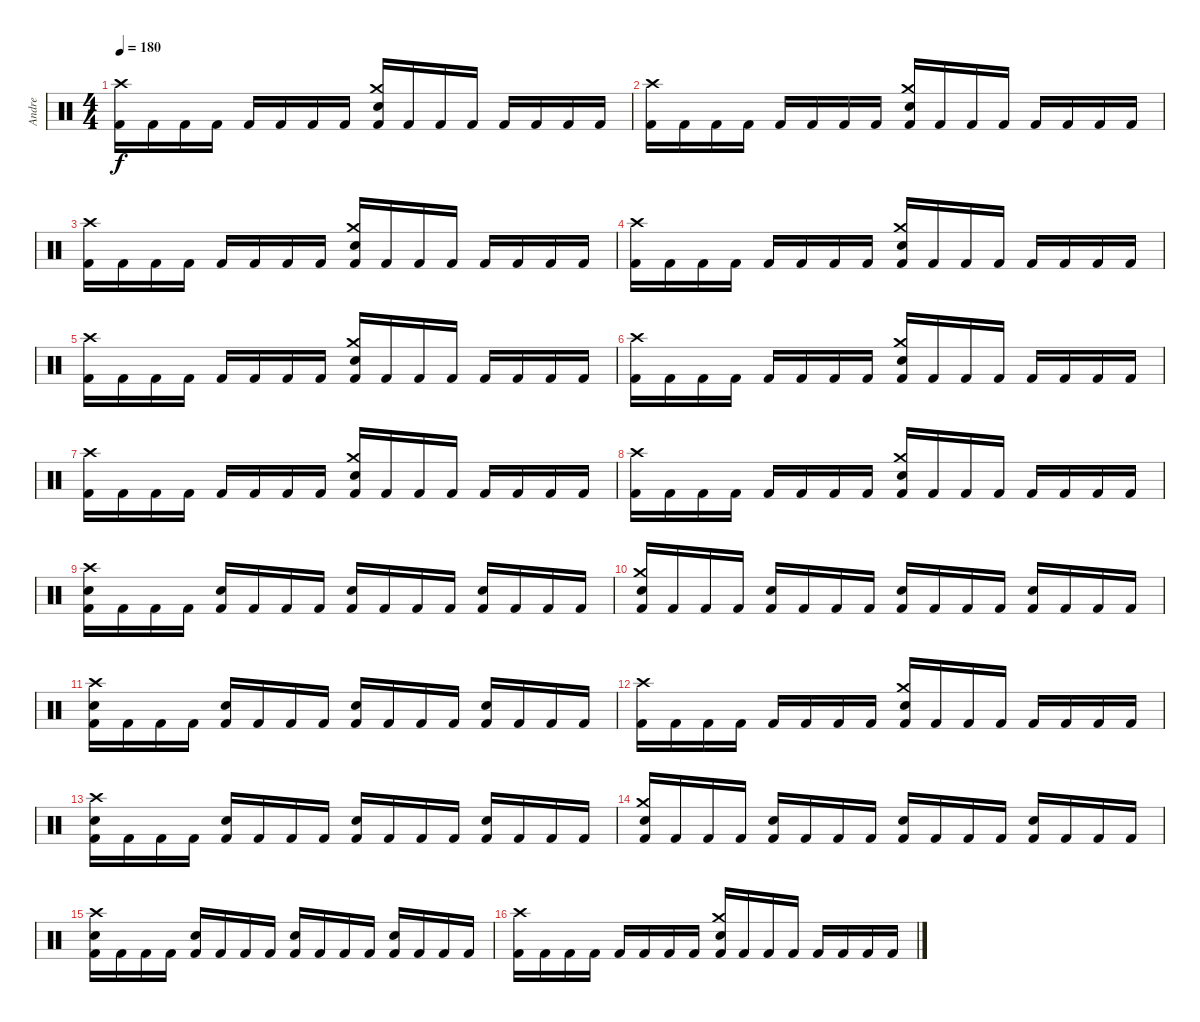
\track ("Andre" "Andre") {instrument percussion}
\staff {score}
\articulation defaults
\ts (4 4)
\tempo 180
\clef neutral
\ks c
("Crash high (hit)" "Kick (hit) 2").16{dy f} "Kick (hit) 2".16 "Kick (hit) 2".16 "Kick (hit) 2".16 "Kick (hit) 2".16 "Kick (hit) 2".16 "Kick (hit) 2".16 "Kick (hit) 2".16 ("Crash medium (hit)" "Snare (hit) 2" "Kick (hit) 2").16 "Kick (hit) 2".16 "Kick (hit) 2".16 "Kick (hit) 2".16 "Kick (hit) 2".16 "Kick (hit) 2".16 "Kick (hit) 2".16 "Kick (hit) 2".16 |
("Crash high (hit)" "Kick (hit) 2").16 "Kick (hit) 2".16 "Kick (hit) 2".16 "Kick (hit) 2".16 "Kick (hit) 2".16 "Kick (hit) 2".16 "Kick (hit) 2".16 "Kick (hit) 2".16 ("Crash medium (hit)" "Snare (hit) 2" "Kick (hit) 2").16 "Kick (hit) 2".16 "Kick (hit) 2".16 "Kick (hit) 2".16 "Kick (hit) 2".16 "Kick (hit) 2".16 "Kick (hit) 2".16 "Kick (hit) 2".16 |
("Crash high (hit)" "Kick (hit) 2").16 "Kick (hit) 2".16 "Kick (hit) 2".16 "Kick (hit) 2".16 "Kick (hit) 2".16 "Kick (hit) 2".16 "Kick (hit) 2".16 "Kick (hit) 2".16 ("Crash medium (hit)" "Snare (hit) 2" "Kick (hit) 2").16 "Kick (hit) 2".16 "Kick (hit) 2".16 "Kick (hit) 2".16 "Kick (hit) 2".16 "Kick (hit) 2".16 "Kick (hit) 2".16 "Kick (hit) 2".16 |
("Crash high (hit)" "Kick (hit) 2").16 "Kick (hit) 2".16 "Kick (hit) 2".16 "Kick (hit) 2".16 "Kick (hit) 2".16 "Kick (hit) 2".16 "Kick (hit) 2".16 "Kick (hit) 2".16 ("Crash medium (hit)" "Snare (hit) 2" "Kick (hit) 2").16 "Kick (hit) 2".16 "Kick (hit) 2".16 "Kick (hit) 2".16 "Kick (hit) 2".16 "Kick (hit) 2".16 "Kick (hit) 2".16 "Kick (hit) 2".16 |
("Crash high (hit)" "Kick (hit) 2").16 "Kick (hit) 2".16 "Kick (hit) 2".16 "Kick (hit) 2".16 "Kick (hit) 2".16 "Kick (hit) 2".16 "Kick (hit) 2".16 "Kick (hit) 2".16 ("Crash medium (hit)" "Snare (hit) 2" "Kick (hit) 2").16 "Kick (hit) 2".16 "Kick (hit) 2".16 "Kick (hit) 2".16 "Kick (hit) 2".16 "Kick (hit) 2".16 "Kick (hit) 2".16 "Kick (hit) 2".16 |
("Crash high (hit)" "Kick (hit) 2").16 "Kick (hit) 2".16 "Kick (hit) 2".16 "Kick (hit) 2".16 "Kick (hit) 2".16 "Kick (hit) 2".16 "Kick (hit) 2".16 "Kick (hit) 2".16 ("Crash medium (hit)" "Snare (hit) 2" "Kick (hit) 2").16 "Kick (hit) 2".16 "Kick (hit) 2".16 "Kick (hit) 2".16 "Kick (hit) 2".16 "Kick (hit) 2".16 "Kick (hit) 2".16 "Kick (hit) 2".16 |
("Crash high (hit)" "Kick (hit) 2").16 "Kick (hit) 2".16 "Kick (hit) 2".16 "Kick (hit) 2".16 "Kick (hit) 2".16 "Kick (hit) 2".16 "Kick (hit) 2".16 "Kick (hit) 2".16 ("Crash medium (hit)" "Snare (hit) 2" "Kick (hit) 2").16 "Kick (hit) 2".16 "Kick (hit) 2".16 "Kick (hit) 2".16 "Kick (hit) 2".16 "Kick (hit) 2".16 "Kick (hit) 2".16 "Kick (hit) 2".16 |
("Crash high (hit)" "Kick (hit) 2").16 "Kick (hit) 2".16 "Kick (hit) 2".16 "Kick (hit) 2".16 "Kick (hit) 2".16 "Kick (hit) 2".16 "Kick (hit) 2".16 "Kick (hit) 2".16 ("Crash medium (hit)" "Snare (hit) 2" "Kick (hit) 2").16 "Kick (hit) 2".16 "Kick (hit) 2".16 "Kick (hit) 2".16 "Kick (hit) 2".16 "Kick (hit) 2".16 "Kick (hit) 2".16 "Kick (hit) 2".16 |
("Crash high (hit)" "Snare (hit) 2" "Kick (hit) 2").16 "Kick (hit) 2".16 "Kick (hit) 2".16 "Kick (hit) 2".16 ("Snare (hit) 2" "Kick (hit) 2").16 "Kick (hit) 2".16 "Kick (hit) 2".16 "Kick (hit) 2".16 ("Snare (hit) 2" "Kick (hit) 2").16 "Kick (hit) 2".16 "Kick (hit) 2".16 "Kick (hit) 2".16 ("Snare (hit) 2" "Kick (hit) 2").16 "Kick (hit) 2".16 "Kick (hit) 2".16 "Kick (hit) 2".16 |
("Crash medium (hit)" "Snare (hit) 2" "Kick (hit) 2").16 "Kick (hit) 2".16 "Kick (hit) 2".16 "Kick (hit) 2".16 ("Snare (hit) 2" "Kick (hit) 2").16 "Kick (hit) 2".16 "Kick (hit) 2".16 "Kick (hit) 2".16 ("Snare (hit) 2" "Kick (hit) 2").16 "Kick (hit) 2".16 "Kick (hit) 2".16 "Kick (hit) 2".16 ("Snare (hit) 2" "Kick (hit) 2").16 "Kick (hit) 2".16 "Kick (hit) 2".16 "Kick (hit) 2".16 |
("Crash high (hit)" "Snare (hit) 2" "Kick (hit) 2").16 "Kick (hit) 2".16 "Kick (hit) 2".16 "Kick (hit) 2".16 ("Snare (hit) 2" "Kick (hit) 2").16 "Kick (hit) 2".16 "Kick (hit) 2".16 "Kick (hit) 2".16 ("Snare (hit) 2" "Kick (hit) 2").16 "Kick (hit) 2".16 "Kick (hit) 2".16 "Kick (hit) 2".16 ("Snare (hit) 2" "Kick (hit) 2").16 "Kick (hit) 2".16 "Kick (hit) 2".16 "Kick (hit) 2".16 |
("Crash high (hit)" "Kick (hit) 2").16 "Kick (hit) 2".16 "Kick (hit) 2".16 "Kick (hit) 2".16 "Kick (hit) 2".16 "Kick (hit) 2".16 "Kick (hit) 2".16 "Kick (hit) 2".16 ("Crash medium (hit)" "Snare (hit) 2" "Kick (hit) 2").16 "Kick (hit) 2".16 "Kick (hit) 2".16 "Kick (hit) 2".16 "Kick (hit) 2".16 "Kick (hit) 2".16 "Kick (hit) 2".16 "Kick (hit) 2".16 |
("Crash high (hit)" "Snare (hit) 2" "Kick (hit) 2").16 "Kick (hit) 2".16 "Kick (hit) 2".16 "Kick (hit) 2".16 ("Snare (hit) 2" "Kick (hit) 2").16 "Kick (hit) 2".16 "Kick (hit) 2".16 "Kick (hit) 2".16 ("Snare (hit) 2" "Kick (hit) 2").16 "Kick (hit) 2".16 "Kick (hit) 2".16 "Kick (hit) 2".16 ("Snare (hit) 2" "Kick (hit) 2").16 "Kick (hit) 2".16 "Kick (hit) 2".16 "Kick (hit) 2".16 |
("Crash medium (hit)" "Snare (hit) 2" "Kick (hit) 2").16 "Kick (hit) 2".16 "Kick (hit) 2".16 "Kick (hit) 2".16 ("Snare (hit) 2" "Kick (hit) 2").16 "Kick (hit) 2".16 "Kick (hit) 2".16 "Kick (hit) 2".16 ("Snare (hit) 2" "Kick (hit) 2").16 "Kick (hit) 2".16 "Kick (hit) 2".16 "Kick (hit) 2".16 ("Snare (hit) 2" "Kick (hit) 2").16 "Kick (hit) 2".16 "Kick (hit) 2".16 "Kick (hit) 2".16 |
("Crash high (hit)" "Snare (hit) 2" "Kick (hit) 2").16 "Kick (hit) 2".16 "Kick (hit) 2".16 "Kick (hit) 2".16 ("Snare (hit) 2" "Kick (hit) 2").16 "Kick (hit) 2".16 "Kick (hit) 2".16 "Kick (hit) 2".16 ("Snare (hit) 2" "Kick (hit) 2").16 "Kick (hit) 2".16 "Kick (hit) 2".16 "Kick (hit) 2".16 ("Snare (hit) 2" "Kick (hit) 2").16 "Kick (hit) 2".16 "Kick (hit) 2".16 "Kick (hit) 2".16 |
("Crash high (hit)" "Kick (hit) 2").16 "Kick (hit) 2".16 "Kick (hit) 2".16 "Kick (hit) 2".16 "Kick (hit) 2".16 "Kick (hit) 2".16 "Kick (hit) 2".16 "Kick (hit) 2".16 ("Crash medium (hit)" "Snare (hit) 2" "Kick (hit) 2").16 "Kick (hit) 2".16 "Kick (hit) 2".16 "Kick (hit) 2".16 "Kick (hit) 2".16 "Kick (hit) 2".16 "Kick (hit) 2".16 "Kick (hit) 2".16
